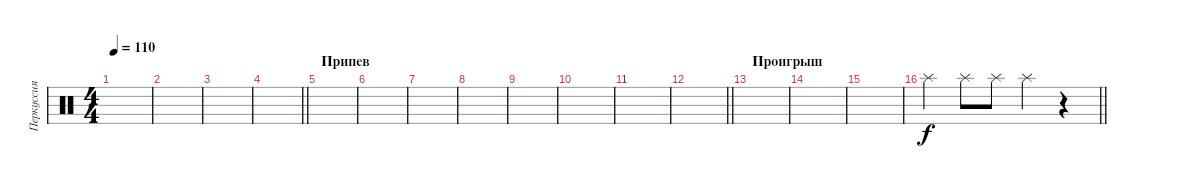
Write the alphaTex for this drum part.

\track ("Перкуссия" "Перкуссия") {instrument percussion}
\staff {score}
\articulation defaults
\ts (4 4)
\tempo 110
\clef neutral
\ks c
|
|
|
\barLineRight lightlight
|
\section ("" "Припев")
|
|
|
|
|
|
|
\barLineRight lightlight
|
\section ("" "Проигрыш")
|
|
|
\barLineRight lightlight "Splash (hit)".4{balance 0} "Splash (hit)".8{balance 16} "Splash (hit)".8{balance 0} "Splash (hit)".4{balance 16}
r.4
